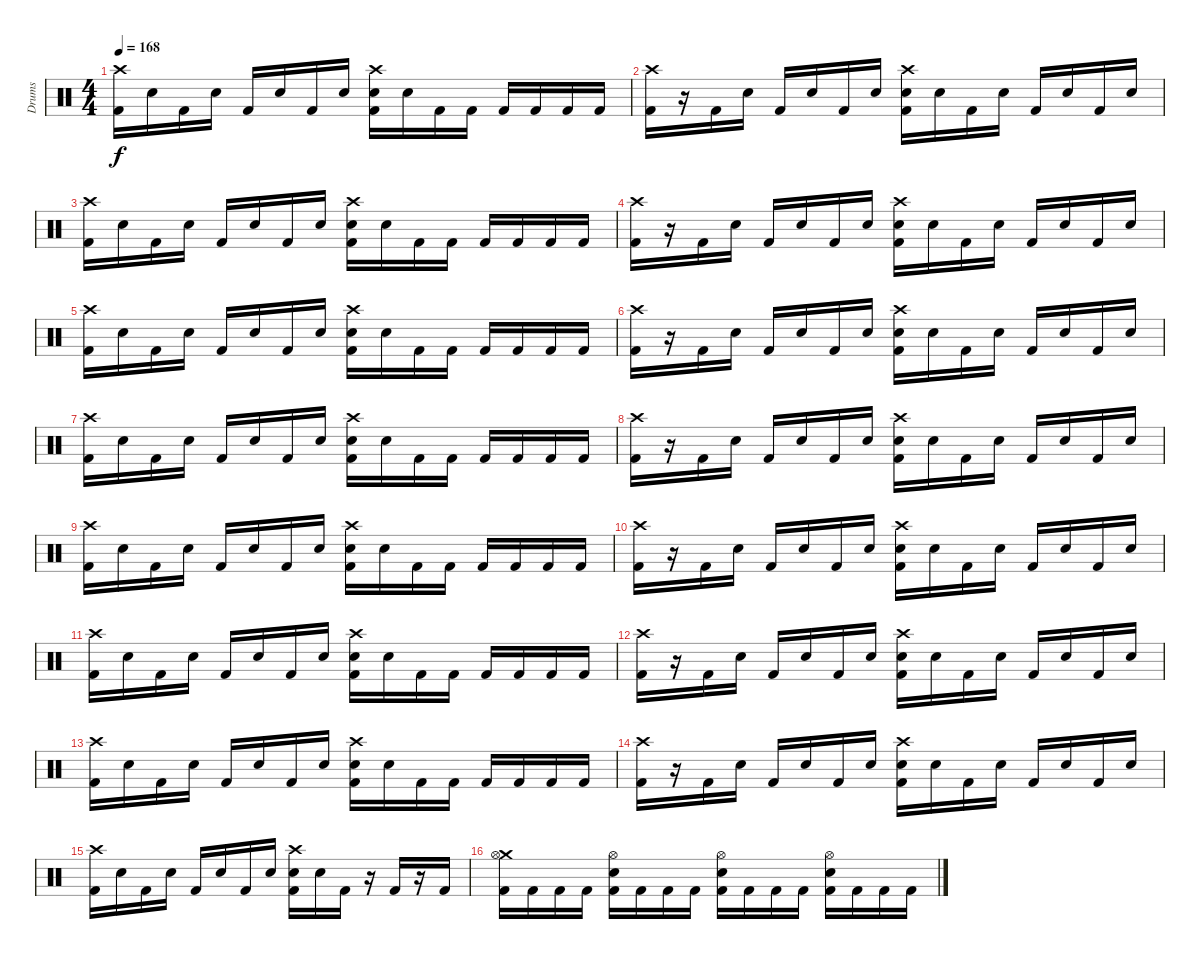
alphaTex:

\track ("Drums" "Drums") {instrument percussion}
\staff {score}
\articulation defaults
\ts (4 4)
\tempo 168
\clef neutral
\ks c
("Crash high (hit)" "Kick (hit) 2").16{dy f} "Snare (hit)".16 "Kick (hit) 2".16 "Snare (hit)".16 "Kick (hit) 2".16 "Snare (hit)".16 "Kick (hit) 2".16 "Snare (hit)".16 ("Crash high (hit)" "Electric Snare (hit)" "Kick (hit) 2").16 "Snare (hit)".16 "Kick (hit) 2".16 "Kick (hit) 2".16 "Kick (hit) 2".16 "Kick (hit) 2".16 "Kick (hit) 2".16 "Kick (hit) 2".16 |
("Crash high (hit)" "Kick (hit) 2").16 r.16 "Kick (hit) 2".16 "Snare (hit)".16 "Kick (hit) 2".16 "Snare (hit)".16 "Kick (hit) 2".16 "Snare (hit)".16 ("Crash high (hit)" "Electric Snare (hit)" "Kick (hit) 2").16 "Snare (hit)".16 "Kick (hit) 2".16 "Snare (hit)".16 "Kick (hit) 2".16 "Snare (hit)".16 "Kick (hit) 2".16 "Snare (hit)".16 |
("Crash high (hit)" "Kick (hit) 2").16 "Snare (hit)".16 "Kick (hit) 2".16 "Snare (hit)".16 "Kick (hit) 2".16 "Snare (hit)".16 "Kick (hit) 2".16 "Snare (hit)".16 ("Crash high (hit)" "Electric Snare (hit)" "Kick (hit) 2").16 "Snare (hit)".16 "Kick (hit) 2".16 "Kick (hit) 2".16 "Kick (hit) 2".16 "Kick (hit) 2".16 "Kick (hit) 2".16 "Kick (hit) 2".16 |
("Crash high (hit)" "Kick (hit) 2").16 r.16 "Kick (hit) 2".16 "Snare (hit)".16 "Kick (hit) 2".16 "Snare (hit)".16 "Kick (hit) 2".16 "Snare (hit)".16 ("Crash high (hit)" "Electric Snare (hit)" "Kick (hit) 2").16 "Snare (hit)".16 "Kick (hit) 2".16 "Snare (hit)".16 "Kick (hit) 2".16 "Snare (hit)".16 "Kick (hit) 2".16 "Snare (hit)".16 |
("Crash high (hit)" "Kick (hit) 2").16 "Snare (hit)".16 "Kick (hit) 2".16 "Snare (hit)".16 "Kick (hit) 2".16 "Snare (hit)".16 "Kick (hit) 2".16 "Snare (hit)".16 ("Crash high (hit)" "Electric Snare (hit)" "Kick (hit) 2").16 "Snare (hit)".16 "Kick (hit) 2".16 "Kick (hit) 2".16 "Kick (hit) 2".16 "Kick (hit) 2".16 "Kick (hit) 2".16 "Kick (hit) 2".16 |
("Crash high (hit)" "Kick (hit) 2").16 r.16 "Kick (hit) 2".16 "Snare (hit)".16 "Kick (hit) 2".16 "Snare (hit)".16 "Kick (hit) 2".16 "Snare (hit)".16 ("Crash high (hit)" "Electric Snare (hit)" "Kick (hit) 2").16 "Snare (hit)".16 "Kick (hit) 2".16 "Snare (hit)".16 "Kick (hit) 2".16 "Snare (hit)".16 "Kick (hit) 2".16 "Snare (hit)".16 |
("Crash high (hit)" "Kick (hit) 2").16 "Snare (hit)".16 "Kick (hit) 2".16 "Snare (hit)".16 "Kick (hit) 2".16 "Snare (hit)".16 "Kick (hit) 2".16 "Snare (hit)".16 ("Crash high (hit)" "Electric Snare (hit)" "Kick (hit) 2").16 "Snare (hit)".16 "Kick (hit) 2".16 "Kick (hit) 2".16 "Kick (hit) 2".16 "Kick (hit) 2".16 "Kick (hit) 2".16 "Kick (hit) 2".16 |
("Crash high (hit)" "Kick (hit) 2").16 r.16 "Kick (hit) 2".16 "Snare (hit)".16 "Kick (hit) 2".16 "Snare (hit)".16 "Kick (hit) 2".16 "Snare (hit)".16 ("Crash high (hit)" "Electric Snare (hit)" "Kick (hit) 2").16 "Snare (hit)".16 "Kick (hit) 2".16 "Snare (hit)".16 "Kick (hit) 2".16 "Snare (hit)".16 "Kick (hit) 2".16 "Snare (hit)".16 |
("Crash high (hit)" "Kick (hit) 2").16 "Snare (hit)".16 "Kick (hit) 2".16 "Snare (hit)".16 "Kick (hit) 2".16 "Snare (hit)".16 "Kick (hit) 2".16 "Snare (hit)".16 ("Crash high (hit)" "Electric Snare (hit)" "Kick (hit) 2").16 "Snare (hit)".16 "Kick (hit) 2".16 "Kick (hit) 2".16 "Kick (hit) 2".16 "Kick (hit) 2".16 "Kick (hit) 2".16 "Kick (hit) 2".16 |
("Crash high (hit)" "Kick (hit) 2").16 r.16 "Kick (hit) 2".16 "Snare (hit)".16 "Kick (hit) 2".16 "Snare (hit)".16 "Kick (hit) 2".16 "Snare (hit)".16 ("Crash high (hit)" "Electric Snare (hit)" "Kick (hit) 2").16 "Snare (hit)".16 "Kick (hit) 2".16 "Snare (hit)".16 "Kick (hit) 2".16 "Snare (hit)".16 "Kick (hit) 2".16 "Snare (hit)".16 |
("Crash high (hit)" "Kick (hit) 2").16 "Snare (hit)".16 "Kick (hit) 2".16 "Snare (hit)".16 "Kick (hit) 2".16 "Snare (hit)".16 "Kick (hit) 2".16 "Snare (hit)".16 ("Crash high (hit)" "Electric Snare (hit)" "Kick (hit) 2").16 "Snare (hit)".16 "Kick (hit) 2".16 "Kick (hit) 2".16 "Kick (hit) 2".16 "Kick (hit) 2".16 "Kick (hit) 2".16 "Kick (hit) 2".16 |
("Crash high (hit)" "Kick (hit) 2").16 r.16 "Kick (hit) 2".16 "Snare (hit)".16 "Kick (hit) 2".16 "Snare (hit)".16 "Kick (hit) 2".16 "Snare (hit)".16 ("Crash high (hit)" "Electric Snare (hit)" "Kick (hit) 2").16 "Snare (hit)".16 "Kick (hit) 2".16 "Snare (hit)".16 "Kick (hit) 2".16 "Snare (hit)".16 "Kick (hit) 2".16 "Snare (hit)".16 |
("Crash high (hit)" "Kick (hit) 2").16 "Snare (hit)".16 "Kick (hit) 2".16 "Snare (hit)".16 "Kick (hit) 2".16 "Snare (hit)".16 "Kick (hit) 2".16 "Snare (hit)".16 ("Crash high (hit)" "Electric Snare (hit)" "Kick (hit) 2").16 "Snare (hit)".16 "Kick (hit) 2".16 "Kick (hit) 2".16 "Kick (hit) 2".16 "Kick (hit) 2".16 "Kick (hit) 2".16 "Kick (hit) 2".16 |
("Crash high (hit)" "Kick (hit) 2").16 r.16 "Kick (hit) 2".16 "Snare (hit)".16 "Kick (hit) 2".16 "Snare (hit)".16 "Kick (hit) 2".16 "Snare (hit)".16 ("Crash high (hit)" "Electric Snare (hit)" "Kick (hit) 2").16 "Snare (hit)".16 "Kick (hit) 2".16 "Snare (hit)".16 "Kick (hit) 2".16 "Snare (hit)".16 "Kick (hit) 2".16 "Snare (hit)".16 |
("Crash high (hit)" "Kick (hit) 2").16 "Snare (hit)".16 "Kick (hit) 2".16 "Snare (hit)".16 "Kick (hit) 2".16 "Snare (hit)".16 "Kick (hit) 2".16 "Snare (hit)".16 ("Crash high (hit)" "Electric Snare (hit)" "Kick (hit) 2").16 "Snare (hit)".16 "Kick (hit) 2".16 r.16 "Kick (hit) 2".16 r.16 "Kick (hit) 2".16 |
("Crash medium (hit)" "Hi-Hat (open)" "Kick (hit) 2").16 "Kick (hit) 2".16 "Kick (hit) 2".16 "Kick (hit) 2".16 ("Hi-Hat (open)" "Electric Snare (hit)" "Kick (hit) 2").16 "Kick (hit) 2".16 "Kick (hit) 2".16 "Kick (hit) 2".16 ("Hi-Hat (open)" "Electric Snare (hit)" "Kick (hit) 2").16 "Kick (hit) 2".16 "Kick (hit) 2".16 "Kick (hit) 2".16 ("Hi-Hat (open)" "Electric Snare (hit)" "Kick (hit) 2").16 "Kick (hit) 2".16 "Kick (hit) 2".16 "Kick (hit) 2".16
